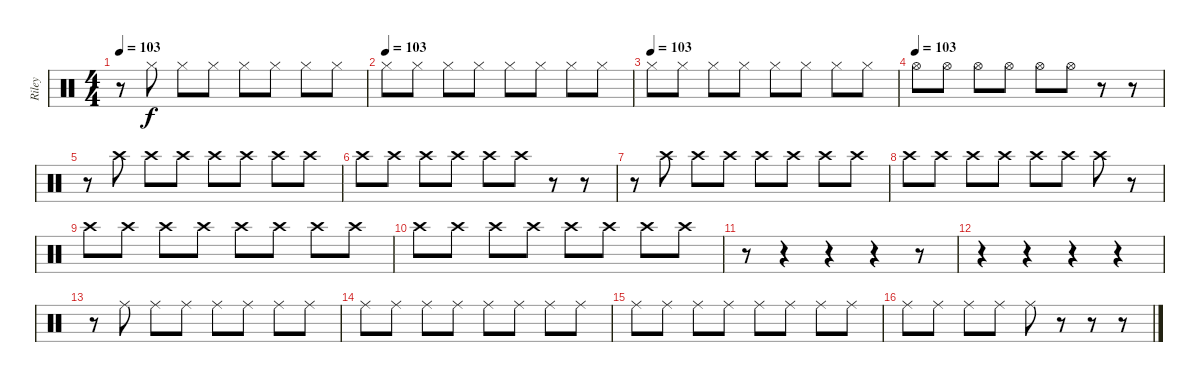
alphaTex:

\track ("Riley" "Riley") {instrument percussion}
\staff {score}
\articulation defaults
\ts (4 4)
\tempo 103
\clef neutral
\ks c
r.8{dy f} "Hi-Hat (closed)".8 "Hi-Hat (closed)".8 "Hi-Hat (closed)".8 "Hi-Hat (closed)".8 "Hi-Hat (closed)".8 "Hi-Hat (closed)".8 "Hi-Hat (closed)".8 |
\tempo (103)
"Hi-Hat (closed)".8 "Hi-Hat (closed)".8 "Hi-Hat (closed)".8 "Hi-Hat (closed)".8 "Hi-Hat (closed)".8 "Hi-Hat (closed)".8 "Hi-Hat (closed)".8 "Hi-Hat (closed)".8 |
\tempo (103)
"Hi-Hat (closed)".8 "Hi-Hat (closed)".8 "Hi-Hat (closed)".8 "Hi-Hat (closed)".8 "Hi-Hat (closed)".8 "Hi-Hat (closed)".8 "Hi-Hat (closed)".8 "Hi-Hat (closed)".8 |
\tempo (103)
"Hi-Hat (open)".8 "Hi-Hat (open)".8 "Hi-Hat (open)".8 "Hi-Hat (open)".8 "Hi-Hat (open)".8 "Hi-Hat (open)".8 r.8 r.8 |
r.8 "Crash high (hit)".8 "Crash high (hit)".8 "Crash high (hit)".8 "Crash high (hit)".8 "Crash high (hit)".8 "Crash high (hit)".8 "Crash high (hit)".8 |
"Crash high (hit)".8 "Crash high (hit)".8 "Crash high (hit)".8 "Crash high (hit)".8 "Crash high (hit)".8 "Crash high (hit)".8 r.8 r.8 |
r.8 "Crash high (hit)".8 "Crash high (hit)".8 "Crash high (hit)".8 "Crash high (hit)".8 "Crash high (hit)".8 "Crash high (hit)".8 "Crash high (hit)".8 |
"Crash high (hit)".8 "Crash high (hit)".8 "Crash high (hit)".8 "Crash high (hit)".8 "Crash high (hit)".8 "Crash high (hit)".8 "Crash high (hit)".8 r.8 |
"Crash high (hit)".8 "Crash high (hit)".8 "Crash high (hit)".8 "Crash high (hit)".8 "Crash high (hit)".8 "Crash high (hit)".8 "Crash high (hit)".8 "Crash high (hit)".8 |
"Crash high (hit)".8 "Crash high (hit)".8 "Crash high (hit)".8 "Crash high (hit)".8 "Crash high (hit)".8 "Crash high (hit)".8 "Crash high (hit)".8 "Crash high (hit)".8 |
r.8 r.4 r.4 r.4 r.8 |
r.4 r.4 r.4 r.4 |
r.8 "Ride (middle)".8 "Ride (middle)".8 "Ride (middle)".8 "Ride (middle)".8 "Ride (middle)".8 "Ride (middle)".8 "Ride (middle)".8 |
"Ride (middle)".8 "Ride (middle)".8 "Ride (middle)".8 "Ride (middle)".8 "Ride (middle)".8 "Ride (middle)".8 "Ride (middle)".8 "Ride (middle)".8 |
"Ride (middle)".8 "Ride (middle)".8 "Ride (middle)".8 "Ride (middle)".8 "Ride (middle)".8 "Ride (middle)".8 "Ride (middle)".8 "Ride (middle)".8 |
"Ride (middle)".8 "Ride (middle)".8 "Ride (middle)".8 "Ride (middle)".8 "Ride (middle)".8 r.8 r.8 r.8
